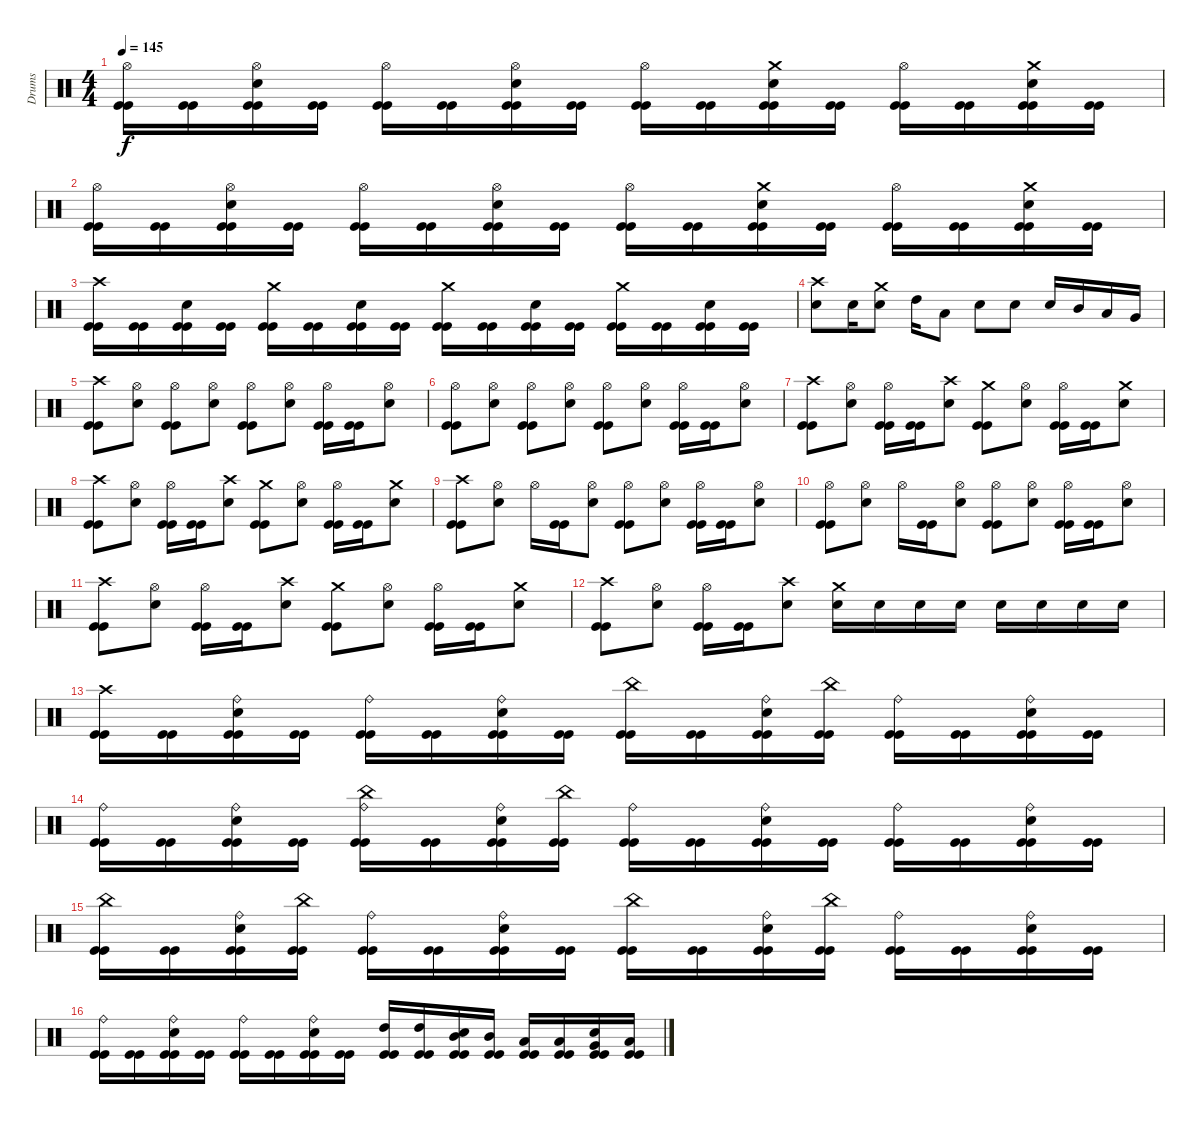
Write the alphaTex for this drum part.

\track ("Drums" "Drums") {instrument percussion}
\staff {score}
\articulation defaults
\ts (4 4)
\tempo 145
\clef neutral
\ks c
("Kick (hit)" "Kick (hit)" "Hi-Hat (open)").16{dy f} ("Kick (hit)" "Kick (hit)").16 ("Kick (hit)" "Kick (hit)" "Snare (hit) 2" "Hi-Hat (open)").16 ("Kick (hit)" "Kick (hit)").16 ("Kick (hit)" "Kick (hit)" "Hi-Hat (open)").16 ("Kick (hit)" "Kick (hit)").16 ("Kick (hit)" "Kick (hit)" "Snare (hit) 2" "Hi-Hat (open)").16 ("Kick (hit)" "Kick (hit)").16 ("Kick (hit)" "Kick (hit)" "Hi-Hat (open)").16 ("Kick (hit)" "Kick (hit)").16 ("Kick (hit)" "Kick (hit)" "Snare (hit) 2" "Crash medium (hit)").16 ("Kick (hit)" "Kick (hit)").16 ("Kick (hit)" "Kick (hit)" "Hi-Hat (open)").16 ("Kick (hit)" "Kick (hit)").16 ("Kick (hit)" "Kick (hit)" "Snare (hit) 2" "Crash medium (hit)").16 ("Kick (hit)" "Kick (hit)").16 |
("Kick (hit)" "Kick (hit)" "Hi-Hat (open)").16 ("Kick (hit)" "Kick (hit)").16 ("Kick (hit)" "Kick (hit)" "Snare (hit) 2" "Hi-Hat (open)").16 ("Kick (hit)" "Kick (hit)").16 ("Kick (hit)" "Kick (hit)" "Hi-Hat (open)").16 ("Kick (hit)" "Kick (hit)").16 ("Kick (hit)" "Kick (hit)" "Snare (hit) 2" "Hi-Hat (open)").16 ("Kick (hit)" "Kick (hit)").16 ("Kick (hit)" "Kick (hit)" "Hi-Hat (open)").16 ("Kick (hit)" "Kick (hit)").16 ("Kick (hit)" "Kick (hit)" "Snare (hit) 2" "Crash medium (hit)").16 ("Kick (hit)" "Kick (hit)").16 ("Kick (hit)" "Kick (hit)" "Hi-Hat (open)").16 ("Kick (hit)" "Kick (hit)").16 ("Kick (hit)" "Kick (hit)" "Snare (hit) 2" "Crash medium (hit)").16 ("Kick (hit)" "Kick (hit)").16 |
("Kick (hit)" "Kick (hit)" "Crash high (hit)").16 ("Kick (hit)" "Kick (hit)").16 ("Kick (hit)" "Kick (hit)" "Snare (hit) 2").16 ("Kick (hit)" "Kick (hit)").16 ("Kick (hit)" "Kick (hit)" "Crash medium (hit)").16 ("Kick (hit)" "Kick (hit)").16 ("Kick (hit)" "Kick (hit)" "Snare (hit) 2").16 ("Kick (hit)" "Kick (hit)").16 ("Kick (hit)" "Kick (hit)" "Crash medium (hit)").16 ("Kick (hit)" "Kick (hit)").16 ("Kick (hit)" "Kick (hit)" "Snare (hit) 2").16 ("Kick (hit)" "Kick (hit)").16 ("Kick (hit)" "Kick (hit)" "Crash medium (hit)").16 ("Kick (hit)" "Kick (hit)").16 ("Kick (hit)" "Kick (hit)" "Snare (hit) 2").16 ("Kick (hit)" "Kick (hit)").16 |
("Snare (hit) 2" "Crash high (hit)").8 "Snare (hit) 2".16 ("Snare (hit) 2" "Crash medium (hit)").8 "High Tom (hit)".16 "Low Tom (hit)".8 "Snare (hit) 2".8 "Snare (hit) 2".8 "Snare (hit) 2".16 "Mid Tom (hit)".16 "Low Tom (hit)".16 "Very Low Tom (hit)".16 |
("Kick (hit)" "Kick (hit)" "Crash high (hit)").8 ("Snare (hit) 2" "Hi-Hat (open)").8 ("Kick (hit)" "Kick (hit)" "Hi-Hat (open)").8 ("Snare (hit) 2" "Hi-Hat (open)").8 ("Kick (hit)" "Kick (hit)" "Hi-Hat (open)").8 ("Snare (hit) 2" "Hi-Hat (open)").8 ("Kick (hit)" "Kick (hit)" "Hi-Hat (open)").16 ("Kick (hit)" "Kick (hit)").16 ("Snare (hit) 2" "Hi-Hat (open)").8 |
("Kick (hit)" "Kick (hit)" "Hi-Hat (open)").8 ("Snare (hit) 2" "Hi-Hat (open)").8 ("Kick (hit)" "Kick (hit)" "Hi-Hat (open)").8 ("Snare (hit) 2" "Hi-Hat (open)").8 ("Kick (hit)" "Kick (hit)" "Hi-Hat (open)").8 ("Snare (hit) 2" "Hi-Hat (open)").8 ("Kick (hit)" "Kick (hit)" "Hi-Hat (open)").16 ("Kick (hit)" "Kick (hit)").16 ("Snare (hit) 2" "Hi-Hat (open)").8 |
("Kick (hit)" "Kick (hit)" "Crash high (hit)").8 ("Snare (hit) 2" "Hi-Hat (open)").8 ("Kick (hit)" "Kick (hit)" "Hi-Hat (open)").16 ("Kick (hit)" "Kick (hit)").16 ("Snare (hit) 2" "Crash high (hit)").8 ("Kick (hit)" "Kick (hit)" "Crash medium (hit)").8 ("Snare (hit) 2" "Hi-Hat (open)").8 ("Kick (hit)" "Kick (hit)" "Hi-Hat (open)").16 ("Kick (hit)" "Kick (hit)").16 ("Snare (hit) 2" "Crash medium (hit)").8 |
("Kick (hit)" "Kick (hit)" "Crash high (hit)").8 ("Snare (hit) 2" "Hi-Hat (open)").8 ("Kick (hit)" "Kick (hit)" "Hi-Hat (open)").16 ("Kick (hit)" "Kick (hit)").16 ("Snare (hit) 2" "Crash high (hit)").8 ("Kick (hit)" "Kick (hit)" "Crash medium (hit)").8 ("Snare (hit) 2" "Hi-Hat (open)").8 ("Kick (hit)" "Kick (hit)" "Hi-Hat (open)").16 ("Kick (hit)" "Kick (hit)").16 ("Snare (hit) 2" "Crash medium (hit)").8 |
("Kick (hit)" "Kick (hit)" "Crash high (hit)").8 ("Snare (hit) 2" "Hi-Hat (open)").8 "Hi-Hat (open)".16 ("Kick (hit)" "Kick (hit)").16 ("Snare (hit) 2" "Hi-Hat (open)").8 ("Kick (hit)" "Kick (hit)" "Hi-Hat (open)").8 ("Snare (hit) 2" "Hi-Hat (open)").8 ("Kick (hit)" "Kick (hit)" "Hi-Hat (open)").16 ("Kick (hit)" "Kick (hit)").16 ("Snare (hit) 2" "Hi-Hat (open)").8 |
("Kick (hit)" "Kick (hit)" "Hi-Hat (open)").8 ("Snare (hit) 2" "Hi-Hat (open)").8 "Hi-Hat (open)".16 ("Kick (hit)" "Kick (hit)").16 ("Snare (hit) 2" "Hi-Hat (open)").8 ("Kick (hit)" "Kick (hit)" "Hi-Hat (open)").8 ("Snare (hit) 2" "Hi-Hat (open)").8 ("Kick (hit)" "Kick (hit)" "Hi-Hat (open)").16 ("Kick (hit)" "Kick (hit)").16 ("Snare (hit) 2" "Hi-Hat (open)").8 |
("Kick (hit)" "Kick (hit)" "Crash high (hit)").8 ("Snare (hit) 2" "Hi-Hat (open)").8 ("Kick (hit)" "Kick (hit)" "Hi-Hat (open)").16 ("Kick (hit)" "Kick (hit)").16 ("Snare (hit) 2" "Crash high (hit)").8 ("Kick (hit)" "Kick (hit)" "Crash medium (hit)").8 ("Snare (hit) 2" "Hi-Hat (open)").8 ("Kick (hit)" "Kick (hit)" "Hi-Hat (open)").16 ("Kick (hit)" "Kick (hit)").16 ("Snare (hit) 2" "Crash medium (hit)").8 |
("Kick (hit)" "Kick (hit)" "Crash high (hit)").8 ("Snare (hit) 2" "Hi-Hat (open)").8 ("Kick (hit)" "Kick (hit)" "Hi-Hat (open)").16 ("Kick (hit)" "Kick (hit)").16 ("Snare (hit) 2" "Crash high (hit)").8 ("Crash medium (hit)" "Snare (hit) 2").16 "Snare (hit) 2".16 "Snare (hit) 2".16 "Snare (hit) 2".16 "Snare (hit) 2".16 "Snare (hit) 2".16 "Snare (hit) 2".16 "Snare (hit) 2".16 |
("Kick (hit)" "Kick (hit)" "Crash high (hit)").16 ("Kick (hit)" "Kick (hit)").16 ("Kick (hit)" "Kick (hit)" "Snare (hit) 2" "Ride (bell)").16 ("Kick (hit)" "Kick (hit)").16 ("Kick (hit)" "Kick (hit)" "Ride (bell)").16 ("Kick (hit)" "Kick (hit)").16 ("Kick (hit)" "Kick (hit)" "Snare (hit) 2" "Ride (bell)").16 ("Kick (hit)" "Kick (hit)").16 ("Kick (hit)" "Kick (hit)" "China (hit)").16 ("Kick (hit)" "Kick (hit)").16 ("Kick (hit)" "Kick (hit)" "Snare (hit) 2" "Ride (bell)").16 ("Kick (hit)" "Kick (hit)" "China (hit)").16 ("Kick (hit)" "Kick (hit)" "Ride (bell)").16 ("Kick (hit)" "Kick (hit)").16 ("Kick (hit)" "Kick (hit)" "Snare (hit) 2" "Ride (bell)").16 ("Kick (hit)" "Kick (hit)").16 |
("Kick (hit)" "Kick (hit)" "Ride (bell)").16 ("Kick (hit)" "Kick (hit)").16 ("Kick (hit)" "Kick (hit)" "Snare (hit) 2" "Ride (bell)").16 ("Kick (hit)" "Kick (hit)").16 ("Kick (hit)" "Kick (hit)" "China (hit)" "Ride (bell)").16 ("Kick (hit)" "Kick (hit)").16 ("Kick (hit)" "Kick (hit)" "Snare (hit) 2" "Ride (bell)").16 ("Kick (hit)" "Kick (hit)" "China (hit)").16 ("Kick (hit)" "Kick (hit)" "Ride (bell)").16 ("Kick (hit)" "Kick (hit)").16 ("Kick (hit)" "Kick (hit)" "Snare (hit) 2" "Ride (bell)").16 ("Kick (hit)" "Kick (hit)").16 ("Kick (hit)" "Kick (hit)" "Ride (bell)").16 ("Kick (hit)" "Kick (hit)").16 ("Kick (hit)" "Kick (hit)" "Snare (hit) 2" "Ride (bell)").16 ("Kick (hit)" "Kick (hit)").16 |
("Kick (hit)" "Kick (hit)" "China (hit)").16 ("Kick (hit)" "Kick (hit)").16 ("Kick (hit)" "Kick (hit)" "Snare (hit) 2" "Ride (bell)").16 ("Kick (hit)" "Kick (hit)" "China (hit)").16 ("Kick (hit)" "Kick (hit)" "Ride (bell)").16 ("Kick (hit)" "Kick (hit)").16 ("Kick (hit)" "Kick (hit)" "Snare (hit) 2" "Ride (bell)").16 ("Kick (hit)" "Kick (hit)").16 ("Kick (hit)" "Kick (hit)" "China (hit)").16 ("Kick (hit)" "Kick (hit)").16 ("Kick (hit)" "Kick (hit)" "Snare (hit) 2" "Ride (bell)").16 ("Kick (hit)" "Kick (hit)" "China (hit)").16 ("Kick (hit)" "Kick (hit)" "Ride (bell)").16 ("Kick (hit)" "Kick (hit)").16 ("Kick (hit)" "Kick (hit)" "Snare (hit) 2" "Ride (bell)").16 ("Kick (hit)" "Kick (hit)").16 |
("Kick (hit)" "Kick (hit)" "Ride (bell)").16 ("Kick (hit)" "Kick (hit)").16 ("Kick (hit)" "Kick (hit)" "Snare (hit) 2" "Ride (bell)").16 ("Kick (hit)" "Kick (hit)").16 ("Kick (hit)" "Kick (hit)" "Ride (bell)").16 ("Kick (hit)" "Kick (hit)").16 ("Kick (hit)" "Kick (hit)" "Snare (hit) 2" "Ride (bell)").16 ("Kick (hit)" "Kick (hit)").16 ("Kick (hit)" "Kick (hit)" "High Tom (hit)").16 ("Kick (hit)" "Kick (hit)" "High Tom (hit)").16 ("Kick (hit)" "Kick (hit)" "Snare (hit) 2" "Mid Tom (hit)").16 ("Kick (hit)" "Kick (hit)" "Mid Tom (hit)").16 ("Kick (hit)" "Kick (hit)" "Low Tom (hit)").16 ("Kick (hit)" "Kick (hit)" "Low Tom (hit)").16 ("Kick (hit)" "Kick (hit)" "Snare (hit) 2" "Very Low Tom (hit)").16 ("Kick (hit)" "Kick (hit)" "Low Floor Tom (hit)").16
